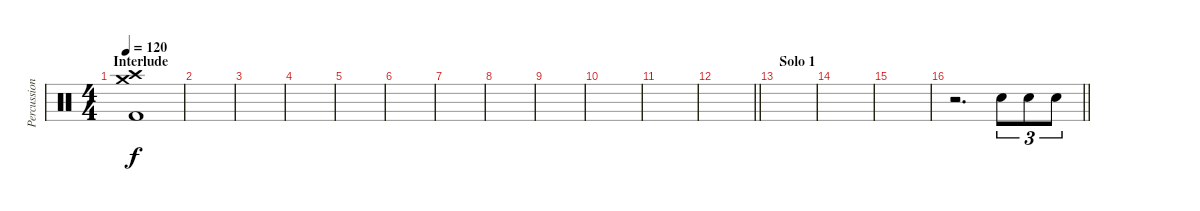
\track ("Percussion" "Percussion") {instrument percussion}
\staff {score}
\articulation defaults
\ts (4 4)
\section ("" "Interlude")
\tempo 120
\clef neutral
\ks c
("Crash high (hit)" "Crash medium (hit)" "Kick (hit) 2").1{dy f} |
|
|
|
|
|
|
|
|
|
|
\barLineRight lightlight
|
\section ("" "Solo 1")
|
|
|
\barLineRight lightlight
r.2{d} "Snare (hit) 2".8{tu (3 2)} "Snare (hit) 2".8{tu (3 2)} "Snare (hit) 2".8{tu (3 2)}
